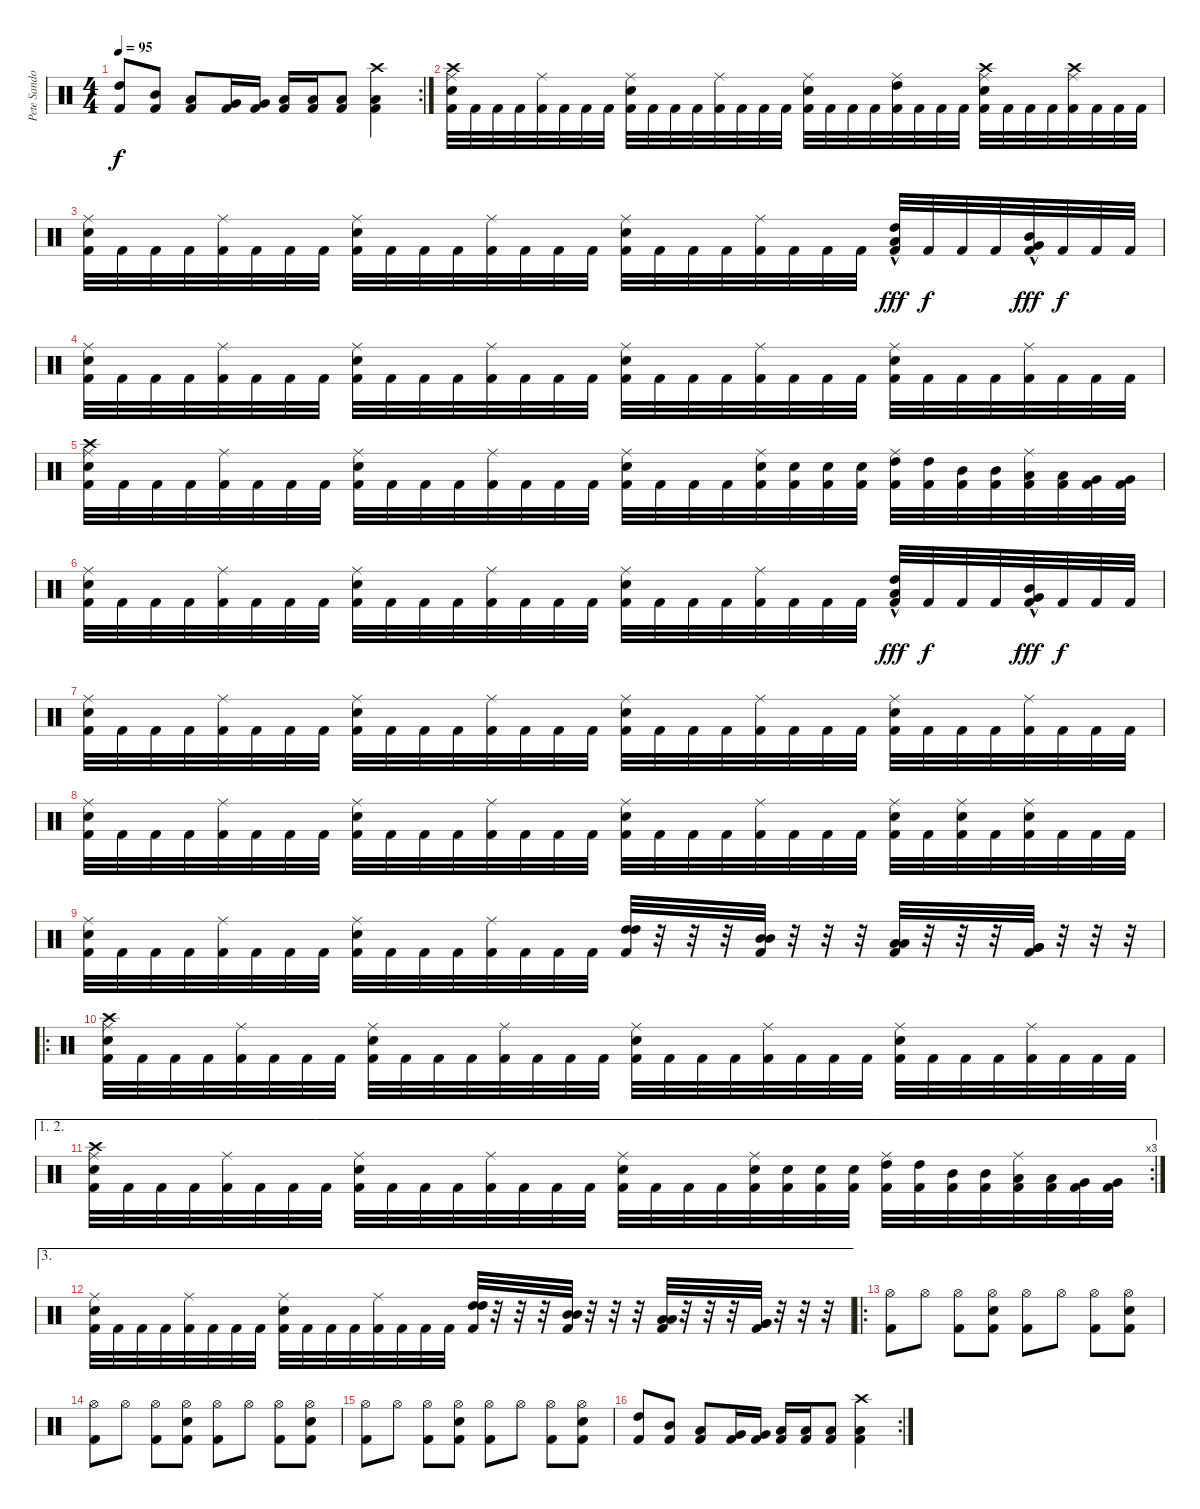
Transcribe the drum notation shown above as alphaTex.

\track ("Pete Sandoval" "Pete Sando") {instrument percussion}
\staff {score}
\articulation defaults
\rc 2
\ts (4 4)
\tempo 95
\clef neutral
\ks c
("High Tom (hit)" "Kick (hit) 2").8{dy f} ("Mid Tom (hit)" "Kick (hit) 2").8 ("Low Tom (hit)" "Kick (hit) 2").8 ("Very Low Tom (hit)" "Kick (hit) 2").16 ("Very Low Tom (hit)" "Kick (hit) 2").16 ("Low Floor Tom (hit)" "Kick (hit) 2").16 ("Low Floor Tom (hit)" "Kick (hit) 2").16 ("Low Floor Tom (hit)" "Kick (hit) 2").8 ("Crash high (hit)" "Low Floor Tom (hit)" "Kick (hit) 2").4 |
("Crash high (hit)" "Electric Snare (hit)" "Ride (middle)" "Kick (hit) 2").32 "Kick (hit) 2".32 "Kick (hit) 2".32 "Kick (hit) 2".32 ("Ride (middle)" "Kick (hit) 2").32 "Kick (hit) 2".32 "Kick (hit) 2".32 "Kick (hit) 2".32 ("Electric Snare (hit)" "Ride (middle)" "Kick (hit) 2").32 "Kick (hit) 2".32 "Kick (hit) 2".32 "Kick (hit) 2".32 ("Ride (middle)" "Kick (hit) 2").32 "Kick (hit) 2".32 "Kick (hit) 2".32 "Kick (hit) 2".32 ("Electric Snare (hit)" "Ride (middle)" "Kick (hit) 2").32 "Kick (hit) 2".32 "Kick (hit) 2".32 "Kick (hit) 2".32 ("High Tom (hit)" "Ride (middle)" "Kick (hit) 2").32 "Kick (hit) 2".32 "Kick (hit) 2".32 "Kick (hit) 2".32 ("Crash high (hit)" "Electric Snare (hit)" "Ride (middle)" "Kick (hit) 2").32 "Kick (hit) 2".32 "Kick (hit) 2".32 "Kick (hit) 2".32 ("Crash high (hit)" "Ride (middle)" "Kick (hit) 2").32 "Kick (hit) 2".32 "Kick (hit) 2".32 "Kick (hit) 2".32 |
("Electric Snare (hit)" "Ride (middle)" "Kick (hit) 2").32 "Kick (hit) 2".32 "Kick (hit) 2".32 "Kick (hit) 2".32 ("Ride (middle)" "Kick (hit) 2").32 "Kick (hit) 2".32 "Kick (hit) 2".32 "Kick (hit) 2".32 ("Electric Snare (hit)" "Ride (middle)" "Kick (hit) 2").32 "Kick (hit) 2".32 "Kick (hit) 2".32 "Kick (hit) 2".32 ("Ride (middle)" "Kick (hit) 2").32 "Kick (hit) 2".32 "Kick (hit) 2".32 "Kick (hit) 2".32 ("Electric Snare (hit)" "Ride (middle)" "Kick (hit) 2").32 "Kick (hit) 2".32 "Kick (hit) 2".32 "Kick (hit) 2".32 ("Ride (middle)" "Kick (hit) 2").32 "Kick (hit) 2".32 "Kick (hit) 2".32 "Kick (hit) 2".32 ("Low Tom (hit)" "High Tom (hit)"{hac} "Kick (hit) 2").32{dy fff} "Kick (hit) 2".32{dy f} "Kick (hit) 2".32 "Kick (hit) 2".32 ("Very Low Tom (hit)"{hac} "Mid Tom (hit)"{hac} "Kick (hit) 2").32{dy fff} "Kick (hit) 2".32{dy f} "Kick (hit) 2".32 "Kick (hit) 2".32 |
("Electric Snare (hit)" "Ride (middle)" "Kick (hit) 2").32 "Kick (hit) 2".32 "Kick (hit) 2".32 "Kick (hit) 2".32 ("Ride (middle)" "Kick (hit) 2").32 "Kick (hit) 2".32 "Kick (hit) 2".32 "Kick (hit) 2".32 ("Electric Snare (hit)" "Ride (middle)" "Kick (hit) 2").32 "Kick (hit) 2".32 "Kick (hit) 2".32 "Kick (hit) 2".32 ("Ride (middle)" "Kick (hit) 2").32 "Kick (hit) 2".32 "Kick (hit) 2".32 "Kick (hit) 2".32 ("Electric Snare (hit)" "Ride (middle)" "Kick (hit) 2").32 "Kick (hit) 2".32 "Kick (hit) 2".32 "Kick (hit) 2".32 ("Ride (middle)" "Kick (hit) 2").32 "Kick (hit) 2".32 "Kick (hit) 2".32 "Kick (hit) 2".32 ("Electric Snare (hit)" "Ride (middle)" "Kick (hit) 2").32 "Kick (hit) 2".32 "Kick (hit) 2".32 "Kick (hit) 2".32 ("Ride (middle)" "Kick (hit) 2").32 "Kick (hit) 2".32 "Kick (hit) 2".32 "Kick (hit) 2".32 |
("Crash high (hit)" "Electric Snare (hit)" "Ride (middle)" "Kick (hit) 2").32 "Kick (hit) 2".32 "Kick (hit) 2".32 "Kick (hit) 2".32 ("Ride (middle)" "Kick (hit) 2").32 "Kick (hit) 2".32 "Kick (hit) 2".32 "Kick (hit) 2".32 ("Electric Snare (hit)" "Ride (middle)" "Kick (hit) 2").32 "Kick (hit) 2".32 "Kick (hit) 2".32 "Kick (hit) 2".32 ("Ride (middle)" "Kick (hit) 2").32 "Kick (hit) 2".32 "Kick (hit) 2".32 "Kick (hit) 2".32 ("Electric Snare (hit)" "Ride (middle)" "Kick (hit) 2").32 "Kick (hit) 2".32 "Kick (hit) 2".32 "Kick (hit) 2".32 ("Electric Snare (hit)" "Ride (middle)" "Kick (hit) 2").32 ("Electric Snare (hit)" "Kick (hit) 2").32 ("Electric Snare (hit)" "Kick (hit) 2").32 ("Electric Snare (hit)" "Kick (hit) 2").32 ("High Tom (hit)" "Ride (middle)" "Kick (hit) 2").32 ("High Tom (hit)" "Kick (hit) 2").32 ("Mid Tom (hit)" "Kick (hit) 2").32 ("Mid Tom (hit)" "Kick (hit) 2").32 ("Low Tom (hit)" "Ride (middle)" "Kick (hit) 2").32 ("Low Tom (hit)" "Kick (hit) 2").32 ("Very Low Tom (hit)" "Kick (hit) 2").32 ("Very Low Tom (hit)" "Kick (hit) 2").32 |
("Electric Snare (hit)" "Ride (middle)" "Kick (hit) 2").32 "Kick (hit) 2".32 "Kick (hit) 2".32 "Kick (hit) 2".32 ("Ride (middle)" "Kick (hit) 2").32 "Kick (hit) 2".32 "Kick (hit) 2".32 "Kick (hit) 2".32 ("Electric Snare (hit)" "Ride (middle)" "Kick (hit) 2").32 "Kick (hit) 2".32 "Kick (hit) 2".32 "Kick (hit) 2".32 ("Ride (middle)" "Kick (hit) 2").32 "Kick (hit) 2".32 "Kick (hit) 2".32 "Kick (hit) 2".32 ("Electric Snare (hit)" "Ride (middle)" "Kick (hit) 2").32 "Kick (hit) 2".32 "Kick (hit) 2".32 "Kick (hit) 2".32 ("Ride (middle)" "Kick (hit) 2").32 "Kick (hit) 2".32 "Kick (hit) 2".32 "Kick (hit) 2".32 ("Low Tom (hit)" "High Tom (hit)"{hac} "Kick (hit) 2").32{dy fff} "Kick (hit) 2".32{dy f} "Kick (hit) 2".32 "Kick (hit) 2".32 ("Very Low Tom (hit)"{hac} "Mid Tom (hit)"{hac} "Kick (hit) 2").32{dy fff} "Kick (hit) 2".32{dy f} "Kick (hit) 2".32 "Kick (hit) 2".32 |
("Electric Snare (hit)" "Ride (middle)" "Kick (hit) 2").32 "Kick (hit) 2".32 "Kick (hit) 2".32 "Kick (hit) 2".32 ("Ride (middle)" "Kick (hit) 2").32 "Kick (hit) 2".32 "Kick (hit) 2".32 "Kick (hit) 2".32 ("Electric Snare (hit)" "Ride (middle)" "Kick (hit) 2").32 "Kick (hit) 2".32 "Kick (hit) 2".32 "Kick (hit) 2".32 ("Ride (middle)" "Kick (hit) 2").32 "Kick (hit) 2".32 "Kick (hit) 2".32 "Kick (hit) 2".32 ("Electric Snare (hit)" "Ride (middle)" "Kick (hit) 2").32 "Kick (hit) 2".32 "Kick (hit) 2".32 "Kick (hit) 2".32 ("Ride (middle)" "Kick (hit) 2").32 "Kick (hit) 2".32 "Kick (hit) 2".32 "Kick (hit) 2".32 ("Electric Snare (hit)" "Ride (middle)" "Kick (hit) 2").32 "Kick (hit) 2".32 "Kick (hit) 2".32 "Kick (hit) 2".32 ("Ride (middle)" "Kick (hit) 2").32 "Kick (hit) 2".32 "Kick (hit) 2".32 "Kick (hit) 2".32 |
("Electric Snare (hit)" "Ride (middle)" "Kick (hit) 2").32 "Kick (hit) 2".32 "Kick (hit) 2".32 "Kick (hit) 2".32 ("Ride (middle)" "Kick (hit) 2").32 "Kick (hit) 2".32 "Kick (hit) 2".32 "Kick (hit) 2".32 ("Electric Snare (hit)" "Ride (middle)" "Kick (hit) 2").32 "Kick (hit) 2".32 "Kick (hit) 2".32 "Kick (hit) 2".32 ("Ride (middle)" "Kick (hit) 2").32 "Kick (hit) 2".32 "Kick (hit) 2".32 "Kick (hit) 2".32 ("Electric Snare (hit)" "Ride (middle)" "Kick (hit) 2").32 "Kick (hit) 2".32 "Kick (hit) 2".32 "Kick (hit) 2".32 ("Ride (middle)" "Kick (hit) 2").32 "Kick (hit) 2".32 "Kick (hit) 2".32 "Kick (hit) 2".32 ("Electric Snare (hit)" "Ride (middle)" "Kick (hit) 2").32 "Kick (hit) 2".32 ("Electric Snare (hit)" "Ride (middle)" "Kick (hit) 2").32 "Kick (hit) 2".32 ("Electric Snare (hit)" "Ride (middle)" "Kick (hit) 2").32 "Kick (hit) 2".32 "Kick (hit) 2".32 "Kick (hit) 2".32 |
("Electric Snare (hit)" "Ride (middle)" "Kick (hit) 2").32 "Kick (hit) 2".32 "Kick (hit) 2".32 "Kick (hit) 2".32 ("Ride (middle)" "Kick (hit) 2").32 "Kick (hit) 2".32 "Kick (hit) 2".32 "Kick (hit) 2".32 ("Electric Snare (hit)" "Ride (middle)" "Kick (hit) 2").32 "Kick (hit) 2".32 "Kick (hit) 2".32 "Kick (hit) 2".32 ("Ride (middle)" "Kick (hit) 2").32 "Kick (hit) 2".32 "Kick (hit) 2".32 "Kick (hit) 2".32 ("High Tom (hit)" "High Tom (hit)" "Kick (hit) 2").32 r.32 r.32 r.32 ("Mid Tom (hit)" "Mid Tom (hit)" "Kick (hit) 2").32 r.32 r.32 r.32 ("Low Tom (hit)" "Low Tom (hit)" "Kick (hit) 2").32 r.32 r.32 r.32 ("Very Low Tom (hit)" "Very Low Tom (hit)" "Kick (hit) 2").32 r.32 r.32 r.32 |
\ro
("Crash high (hit)" "Electric Snare (hit)" "Ride (middle)" "Kick (hit) 2").32 "Kick (hit) 2".32 "Kick (hit) 2".32 "Kick (hit) 2".32 ("Ride (middle)" "Kick (hit) 2").32 "Kick (hit) 2".32 "Kick (hit) 2".32 "Kick (hit) 2".32 ("Electric Snare (hit)" "Ride (middle)" "Kick (hit) 2").32 "Kick (hit) 2".32 "Kick (hit) 2".32 "Kick (hit) 2".32 ("Ride (middle)" "Kick (hit) 2").32 "Kick (hit) 2".32 "Kick (hit) 2".32 "Kick (hit) 2".32 ("Electric Snare (hit)" "Ride (middle)" "Kick (hit) 2").32 "Kick (hit) 2".32 "Kick (hit) 2".32 "Kick (hit) 2".32 ("Ride (middle)" "Kick (hit) 2").32 "Kick (hit) 2".32 "Kick (hit) 2".32 "Kick (hit) 2".32 ("Electric Snare (hit)" "Ride (middle)" "Kick (hit) 2").32 "Kick (hit) 2".32 "Kick (hit) 2".32 "Kick (hit) 2".32 ("Ride (middle)" "Kick (hit) 2").32 "Kick (hit) 2".32 "Kick (hit) 2".32 "Kick (hit) 2".32 |
\ae (1 2)
\rc 3
("Crash high (hit)" "Electric Snare (hit)" "Ride (middle)" "Kick (hit) 2").32 "Kick (hit) 2".32 "Kick (hit) 2".32 "Kick (hit) 2".32 ("Ride (middle)" "Kick (hit) 2").32 "Kick (hit) 2".32 "Kick (hit) 2".32 "Kick (hit) 2".32 ("Electric Snare (hit)" "Ride (middle)" "Kick (hit) 2").32 "Kick (hit) 2".32 "Kick (hit) 2".32 "Kick (hit) 2".32 ("Ride (middle)" "Kick (hit) 2").32 "Kick (hit) 2".32 "Kick (hit) 2".32 "Kick (hit) 2".32 ("Electric Snare (hit)" "Ride (middle)" "Kick (hit) 2").32 "Kick (hit) 2".32 "Kick (hit) 2".32 "Kick (hit) 2".32 ("Electric Snare (hit)" "Ride (middle)" "Kick (hit) 2").32 ("Electric Snare (hit)" "Kick (hit) 2").32 ("Electric Snare (hit)" "Kick (hit) 2").32 ("Electric Snare (hit)" "Kick (hit) 2").32 ("High Tom (hit)" "Ride (middle)" "Kick (hit) 2").32 ("High Tom (hit)" "Kick (hit) 2").32 ("Mid Tom (hit)" "Kick (hit) 2").32 ("Mid Tom (hit)" "Kick (hit) 2").32 ("Low Tom (hit)" "Ride (middle)" "Kick (hit) 2").32 ("Low Tom (hit)" "Kick (hit) 2").32 ("Very Low Tom (hit)" "Kick (hit) 2").32 ("Very Low Tom (hit)" "Kick (hit) 2").32 |
\ae 3
("Electric Snare (hit)" "Ride (middle)" "Kick (hit) 2").32 "Kick (hit) 2".32 "Kick (hit) 2".32 "Kick (hit) 2".32 ("Ride (middle)" "Kick (hit) 2").32 "Kick (hit) 2".32 "Kick (hit) 2".32 "Kick (hit) 2".32 ("Electric Snare (hit)" "Ride (middle)" "Kick (hit) 2").32 "Kick (hit) 2".32 "Kick (hit) 2".32 "Kick (hit) 2".32 ("Ride (middle)" "Kick (hit) 2").32 "Kick (hit) 2".32 "Kick (hit) 2".32 "Kick (hit) 2".32 ("High Tom (hit)" "High Tom (hit)" "Kick (hit) 2").32 r.32 r.32 r.32 ("Mid Tom (hit)" "Mid Tom (hit)" "Kick (hit) 2").32 r.32 r.32 r.32 ("Low Tom (hit)" "Low Tom (hit)" "Kick (hit) 2").32 r.32 r.32 r.32 ("Very Low Tom (hit)" "Very Low Tom (hit)" "Kick (hit) 2").32 r.32 r.32 r.32 |
\ro
("Hi-Hat (open)" "Kick (hit) 2").8 "Hi-Hat (open)".8 ("Hi-Hat (open)" "Kick (hit) 2").8 ("Hi-Hat (open)" "Electric Snare (hit)" "Kick (hit) 2").8 ("Hi-Hat (open)" "Kick (hit) 2").8 "Hi-Hat (open)".8 ("Hi-Hat (open)" "Kick (hit) 2").8 ("Hi-Hat (open)" "Electric Snare (hit)" "Kick (hit) 2").8 |
("Hi-Hat (open)" "Kick (hit) 2").8 "Hi-Hat (open)".8 ("Hi-Hat (open)" "Kick (hit) 2").8 ("Hi-Hat (open)" "Electric Snare (hit)" "Kick (hit) 2").8 ("Hi-Hat (open)" "Kick (hit) 2").8 "Hi-Hat (open)".8 ("Hi-Hat (open)" "Kick (hit) 2").8 ("Hi-Hat (open)" "Electric Snare (hit)" "Kick (hit) 2").8 |
("Hi-Hat (open)" "Kick (hit) 2").8 "Hi-Hat (open)".8 ("Hi-Hat (open)" "Kick (hit) 2").8 ("Hi-Hat (open)" "Electric Snare (hit)" "Kick (hit) 2").8 ("Hi-Hat (open)" "Kick (hit) 2").8 "Hi-Hat (open)".8 ("Hi-Hat (open)" "Kick (hit) 2").8 ("Hi-Hat (open)" "Electric Snare (hit)" "Kick (hit) 2").8 |
\rc 2
("High Tom (hit)" "Kick (hit) 2").8 ("Mid Tom (hit)" "Kick (hit) 2").8 ("Low Tom (hit)" "Kick (hit) 2").8 ("Very Low Tom (hit)" "Kick (hit) 2").16 ("Very Low Tom (hit)" "Kick (hit) 2").16 ("Low Floor Tom (hit)" "Kick (hit) 2").16 ("Low Floor Tom (hit)" "Kick (hit) 2").16 ("Low Floor Tom (hit)" "Kick (hit) 2").8 ("Crash high (hit)" "Low Floor Tom (hit)" "Kick (hit) 2").4
